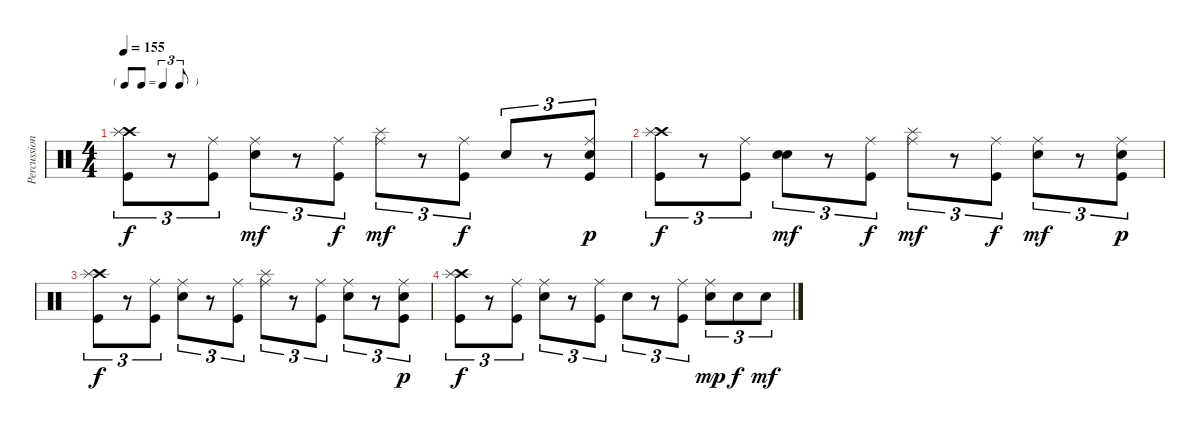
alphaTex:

\track ("Percussion" "Percussion") {instrument percussion}
\staff {score}
\articulation defaults
\ts (4 4)
\tf triplet8th
\tempo 155
\clef neutral
\ks c
("Crash high (hit)" "Splash (hit)" "Kick (hit)").8{tu (3 2) dy f} r.8{tu (3 2)} ("Ride (middle)" "Kick (hit)").8{tu (3 2)} ("Ride (middle)" "Electric Snare (hit)").8{tu (3 2) dy mf} r.8{tu (3 2)} ("Ride (middle)" "Kick (hit)").8{tu (3 2) dy f} ("Ride (middle)" "Splash (hit)").8{tu (3 2) dy mf} r.8{tu (3 2)} ("Ride (middle)" "Kick (hit)").8{tu (3 2) dy f} "Electric Snare (hit)".8{tu (3 2)} r.8{tu (3 2)} ("Ride (middle)" "Electric Snare (hit)" "Kick (hit)").8{tu (3 2) dy p} |
("Crash high (hit)" "Splash (hit)" "Kick (hit)").8{tu (3 2) dy f} r.8{tu (3 2)} ("Ride (middle)" "Kick (hit)").8{tu (3 2)} ("Snare (hit)" "Electric Snare (hit)").8{tu (3 2) dy mf} r.8{tu (3 2)} ("Ride (middle)" "Kick (hit)").8{tu (3 2) dy f} ("Ride (middle)" "Splash (hit)").8{tu (3 2) dy mf} r.8{tu (3 2)} ("Ride (middle)" "Kick (hit)").8{tu (3 2) dy f} ("Ride (middle)" "Electric Snare (hit)").8{tu (3 2) dy mf} r.8{tu (3 2)} ("Ride (middle)" "Electric Snare (hit)" "Kick (hit)").8{tu (3 2) dy p} |
("Crash high (hit)" "Splash (hit)" "Kick (hit)").8{tu (3 2) dy f} r.8{tu (3 2)} ("Ride (middle)" "Kick (hit)").8{tu (3 2)} ("Ride (middle)" "Electric Snare (hit)").8{tu (3 2)} r.8{tu (3 2)} ("Ride (middle)" "Kick (hit)").8{tu (3 2)} ("Ride (middle)" "Splash (hit)").8{tu (3 2)} r.8{tu (3 2)} ("Ride (middle)" "Kick (hit)").8{tu (3 2)} ("Ride (middle)" "Electric Snare (hit)").8{tu (3 2)} r.8{tu (3 2)} ("Ride (middle)" "Electric Snare (hit)" "Kick (hit)").8{tu (3 2) dy p} |
("Crash high (hit)" "Splash (hit)" "Kick (hit)").8{tu (3 2) dy f} r.8{tu (3 2)} ("Ride (middle)" "Kick (hit)").8{tu (3 2)} ("Ride (middle)" "Electric Snare (hit)").8{tu (3 2)} r.8{tu (3 2)} ("Ride (middle)" "Kick (hit)").8{tu (3 2)} "Electric Snare (hit)".8{tu (3 2)} r.8{tu (3 2)} ("Ride (middle)" "Kick (hit)").8{tu (3 2)} ("Ride (middle)" "Electric Snare (hit)").8{tu (3 2) dy mp} "Electric Snare (hit)".8{tu (3 2) dy f} "Electric Snare (hit)".8{tu (3 2) dy mf}
